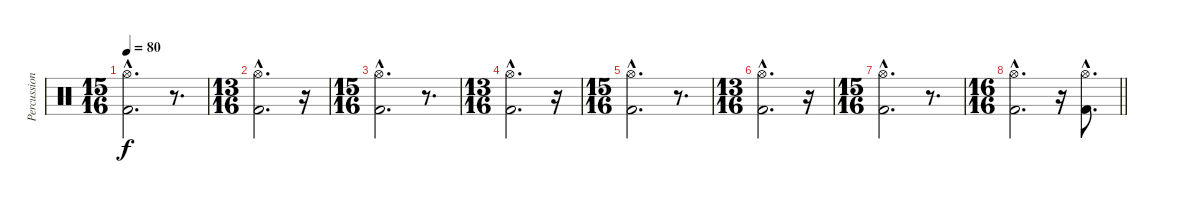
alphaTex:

\track ("Percussion" "Percussion") {instrument percussion}
\staff {score}
\articulation defaults
\ts (15 16)
\tempo 80
\clef neutral
\ks c
("Hi-Hat (open)"{hac} "Kick (hit) 2"{hac}).2{d dy f} r.8{d} |
\ts (13 16)
("Hi-Hat (open)"{hac} "Kick (hit) 2"{hac}).2{d} r.16 |
\ts (15 16)
("Hi-Hat (open)"{hac} "Kick (hit) 2"{hac}).2{d} r.8{d} |
\ts (13 16)
("Hi-Hat (open)"{hac} "Kick (hit) 2"{hac}).2{d} r.16 |
\ts (15 16)
("Hi-Hat (open)"{hac} "Kick (hit) 2"{hac}).2{d} r.8{d} |
\ts (13 16)
("Hi-Hat (open)"{hac} "Kick (hit) 2"{hac}).2{d} r.16 |
\ts (15 16)
("Hi-Hat (open)"{hac} "Kick (hit) 2"{hac}).2{d} r.8{d} |
\ts (16 16)
\barLineRight lightlight
("Hi-Hat (open)"{hac} "Kick (hit) 2"{hac}).2{d} r.16 ("Hi-Hat (open)"{hac} "Kick (hit) 2"{hac}).8{d}
